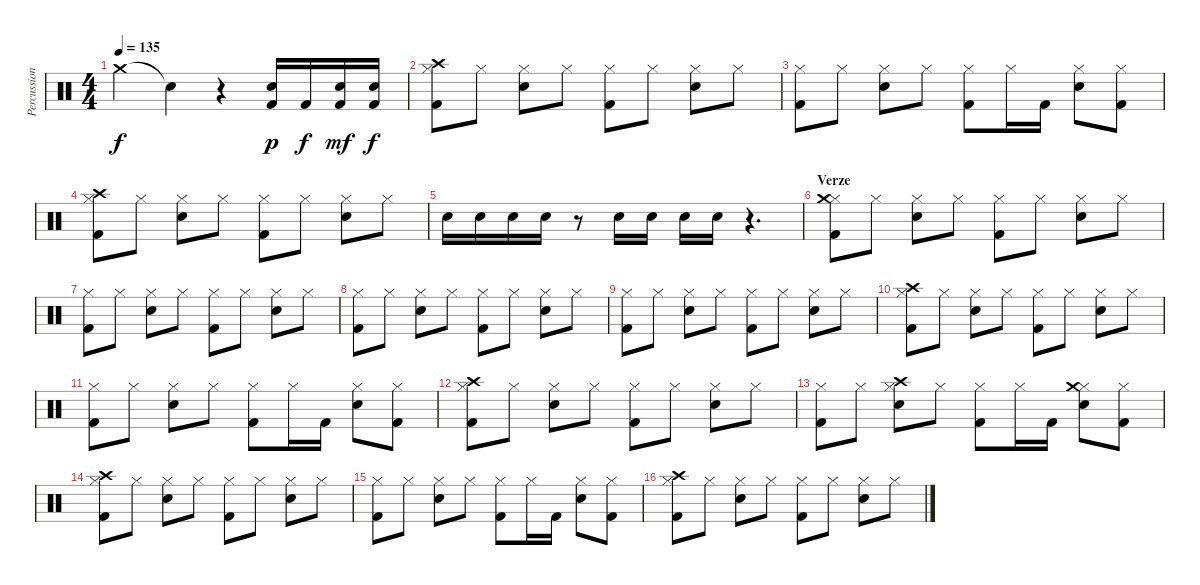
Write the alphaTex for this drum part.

\track ("Percussion" "Percussion") {instrument percussion}
\staff {score}
\articulation defaults
\ts (4 4)
\tempo 135
\clef neutral
\ks c "Crash medium (hit)".4{dy f} "Snare (hit)"{t}.4
r.4 ("Kick (hit) 2" "Electric Snare (hit)").16{dy p} "Kick (hit) 2".16{dy f} ("Kick (hit) 2" "Electric Snare (hit)").16{dy mf} ("Kick (hit) 2" "Electric Snare (hit)").16{dy f} |
("Hi-Hat (closed)" "Kick (hit) 2" "Crash high (hit)").8 "Hi-Hat (closed)".8 ("Hi-Hat (closed)" "Electric Snare (hit)").8 "Hi-Hat (closed)".8 ("Hi-Hat (closed)" "Kick (hit) 2").8 "Hi-Hat (closed)".8 ("Hi-Hat (closed)" "Electric Snare (hit)").8 "Hi-Hat (closed)".8 |
("Hi-Hat (closed)" "Kick (hit) 2").8 "Hi-Hat (closed)".8 ("Hi-Hat (closed)" "Electric Snare (hit)").8 "Hi-Hat (closed)".8 ("Hi-Hat (closed)" "Kick (hit) 2").8 "Hi-Hat (closed)".16 "Kick (hit) 2".16 ("Hi-Hat (closed)" "Electric Snare (hit)").8 ("Hi-Hat (closed)" "Kick (hit) 2").8 |
("Hi-Hat (closed)" "Kick (hit) 2" "Crash high (hit)").8 "Hi-Hat (closed)".8 ("Hi-Hat (closed)" "Electric Snare (hit)").8 "Hi-Hat (closed)".8 ("Hi-Hat (closed)" "Kick (hit) 2").8 "Hi-Hat (closed)".8 ("Hi-Hat (closed)" "Electric Snare (hit)").8 "Hi-Hat (closed)".8 |
"Electric Snare (hit)".16 "Electric Snare (hit)".16 "Electric Snare (hit)".16 "Electric Snare (hit)".16 r.8 "Electric Snare (hit)".16 "Electric Snare (hit)".16 "Electric Snare (hit)".16 "Electric Snare (hit)".16 r.4{d} |
\section ("" "Verze")
("Hi-Hat (closed)" "Kick (hit) 2" "Crash medium (hit)").8 "Hi-Hat (closed)".8 ("Hi-Hat (closed)" "Electric Snare (hit)").8 "Hi-Hat (closed)".8 ("Hi-Hat (closed)" "Kick (hit) 2").8 "Hi-Hat (closed)".8 ("Hi-Hat (closed)" "Electric Snare (hit)").8 "Hi-Hat (closed)".8 |
("Hi-Hat (closed)" "Kick (hit) 2").8 "Hi-Hat (closed)".8 ("Hi-Hat (closed)" "Electric Snare (hit)").8 "Hi-Hat (closed)".8 ("Hi-Hat (closed)" "Kick (hit) 2").8 "Hi-Hat (closed)".8 ("Hi-Hat (closed)" "Electric Snare (hit)").8 "Hi-Hat (closed)".8 |
("Hi-Hat (closed)" "Kick (hit) 2").8 "Hi-Hat (closed)".8 ("Hi-Hat (closed)" "Electric Snare (hit)").8 "Hi-Hat (closed)".8 ("Hi-Hat (closed)" "Kick (hit) 2").8 "Hi-Hat (closed)".8 ("Hi-Hat (closed)" "Electric Snare (hit)").8 "Hi-Hat (closed)".8 |
("Hi-Hat (closed)" "Kick (hit) 2").8 "Hi-Hat (closed)".8 ("Hi-Hat (closed)" "Electric Snare (hit)").8 "Hi-Hat (closed)".8 ("Hi-Hat (closed)" "Kick (hit) 2").8 "Hi-Hat (closed)".8 ("Hi-Hat (closed)" "Electric Snare (hit)").8 "Hi-Hat (closed)".8 |
("Hi-Hat (closed)" "Kick (hit) 2" "Crash high (hit)").8 "Hi-Hat (closed)".8 ("Hi-Hat (closed)" "Electric Snare (hit)").8 "Hi-Hat (closed)".8 ("Hi-Hat (closed)" "Kick (hit) 2").8 "Hi-Hat (closed)".8 ("Hi-Hat (closed)" "Electric Snare (hit)").8 "Hi-Hat (closed)".8 |
("Hi-Hat (closed)" "Kick (hit) 2").8 "Hi-Hat (closed)".8 ("Hi-Hat (closed)" "Electric Snare (hit)").8 "Hi-Hat (closed)".8 ("Hi-Hat (closed)" "Kick (hit) 2").8 "Hi-Hat (closed)".16 "Kick (hit) 2".16 ("Hi-Hat (closed)" "Electric Snare (hit)").8 ("Hi-Hat (closed)" "Kick (hit) 2").8 |
("Hi-Hat (closed)" "Kick (hit) 2" "Crash high (hit)").8 "Hi-Hat (closed)".8 ("Hi-Hat (closed)" "Electric Snare (hit)").8 "Hi-Hat (closed)".8 ("Hi-Hat (closed)" "Kick (hit) 2").8 "Hi-Hat (closed)".8 ("Hi-Hat (closed)" "Electric Snare (hit)").8 "Hi-Hat (closed)".8 |
("Hi-Hat (closed)" "Kick (hit) 2").8 "Hi-Hat (closed)".8 ("Hi-Hat (closed)" "Crash high (hit)" "Electric Snare (hit)").8 "Hi-Hat (closed)".8 ("Hi-Hat (closed)" "Kick (hit) 2").8 "Hi-Hat (closed)".16 "Kick (hit) 2".16 ("Hi-Hat (closed)" "Crash medium (hit)" "Electric Snare (hit)").8 ("Hi-Hat (closed)" "Kick (hit) 2").8 |
("Hi-Hat (closed)" "Kick (hit) 2" "Crash high (hit)").8 "Hi-Hat (closed)".8 ("Hi-Hat (closed)" "Electric Snare (hit)").8 "Hi-Hat (closed)".8 ("Hi-Hat (closed)" "Kick (hit) 2").8 "Hi-Hat (closed)".8 ("Hi-Hat (closed)" "Electric Snare (hit)").8 "Hi-Hat (closed)".8 |
("Hi-Hat (closed)" "Kick (hit) 2").8 "Hi-Hat (closed)".8 ("Hi-Hat (closed)" "Electric Snare (hit)").8 "Hi-Hat (closed)".8 ("Hi-Hat (closed)" "Kick (hit) 2").8 "Hi-Hat (closed)".16 "Kick (hit) 2".16 ("Hi-Hat (closed)" "Electric Snare (hit)").8 ("Hi-Hat (closed)" "Kick (hit) 2").8 |
("Hi-Hat (closed)" "Kick (hit) 2" "Crash high (hit)").8 "Hi-Hat (closed)".8 ("Hi-Hat (closed)" "Electric Snare (hit)").8 "Hi-Hat (closed)".8 ("Hi-Hat (closed)" "Kick (hit) 2").8 "Hi-Hat (closed)".8 ("Hi-Hat (closed)" "Electric Snare (hit)").8 "Hi-Hat (closed)".8
